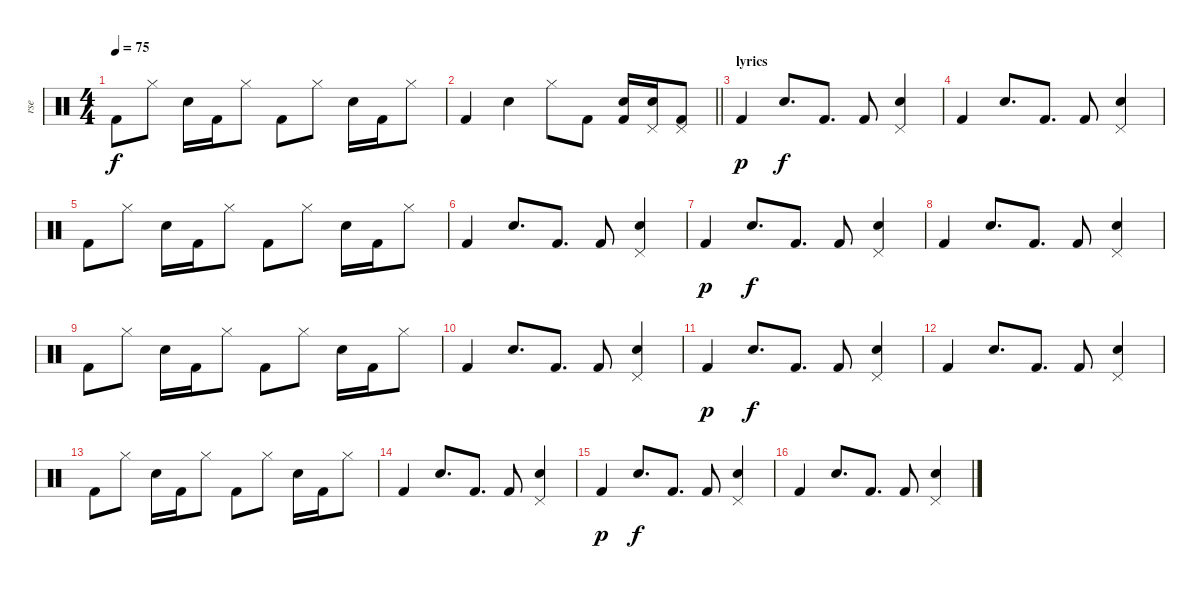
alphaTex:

\track ("rse" "rse") {instrument percussion}
\staff {score}
\articulation defaults
\ts (4 4)
\tempo 75
\clef neutral
\ks c "Kick (hit) 2".8{dy f} "Hi-Hat (closed)".8 "Electric Snare (hit)".16 "Kick (hit) 2".16 "Hi-Hat (closed)".8 "Kick (hit) 2".8 "Hi-Hat (closed)".8 "Electric Snare (hit)".16 "Kick (hit) 2".16 "Hi-Hat (closed)".8
|
\barLineRight lightlight "Kick (hit) 2".4 "Electric Snare (hit)".4 "Hi-Hat (closed)".8 "Kick (hit) 2".8
("Kick (hit) 2" "Electric Snare (hit)").16 ("Electric Snare (hit)" "Pedal Hi-Hat (hit)").16 ("Kick (hit) 2" "Pedal Hi-Hat (hit)").8 |
\section ("" "lyrics")
"Kick (hit) 2".4{dy p} "Electric Snare (hit)".8{d dy f} "Kick (hit) 2".8{d} "Kick (hit) 2".8 ("Electric Snare (hit)" "Pedal Hi-Hat (hit)").4 |
"Kick (hit) 2".4 "Electric Snare (hit)".8{d} "Kick (hit) 2".8{d} "Kick (hit) 2".8 ("Electric Snare (hit)" "Pedal Hi-Hat (hit)").4 |
"Kick (hit) 2".8 "Hi-Hat (closed)".8 "Electric Snare (hit)".16 "Kick (hit) 2".16 "Hi-Hat (closed)".8 "Kick (hit) 2".8 "Hi-Hat (closed)".8 "Electric Snare (hit)".16 "Kick (hit) 2".16 "Hi-Hat (closed)".8 |
"Kick (hit) 2".4 "Electric Snare (hit)".8{d} "Kick (hit) 2".8{d} "Kick (hit) 2".8 ("Electric Snare (hit)" "Pedal Hi-Hat (hit)").4 |
"Kick (hit) 2".4{dy p} "Electric Snare (hit)".8{d dy f} "Kick (hit) 2".8{d} "Kick (hit) 2".8 ("Electric Snare (hit)" "Pedal Hi-Hat (hit)").4 |
"Kick (hit) 2".4 "Electric Snare (hit)".8{d} "Kick (hit) 2".8{d} "Kick (hit) 2".8 ("Electric Snare (hit)" "Pedal Hi-Hat (hit)").4 |
"Kick (hit) 2".8 "Hi-Hat (closed)".8 "Electric Snare (hit)".16 "Kick (hit) 2".16 "Hi-Hat (closed)".8 "Kick (hit) 2".8 "Hi-Hat (closed)".8 "Electric Snare (hit)".16 "Kick (hit) 2".16 "Hi-Hat (closed)".8 |
"Kick (hit) 2".4 "Electric Snare (hit)".8{d} "Kick (hit) 2".8{d} "Kick (hit) 2".8 ("Electric Snare (hit)" "Pedal Hi-Hat (hit)").4 |
"Kick (hit) 2".4{dy p} "Electric Snare (hit)".8{d dy f} "Kick (hit) 2".8{d} "Kick (hit) 2".8 ("Electric Snare (hit)" "Pedal Hi-Hat (hit)").4 |
"Kick (hit) 2".4 "Electric Snare (hit)".8{d} "Kick (hit) 2".8{d} "Kick (hit) 2".8 ("Electric Snare (hit)" "Pedal Hi-Hat (hit)").4 |
"Kick (hit) 2".8 "Hi-Hat (closed)".8 "Electric Snare (hit)".16 "Kick (hit) 2".16 "Hi-Hat (closed)".8 "Kick (hit) 2".8 "Hi-Hat (closed)".8 "Electric Snare (hit)".16 "Kick (hit) 2".16 "Hi-Hat (closed)".8 |
"Kick (hit) 2".4 "Electric Snare (hit)".8{d} "Kick (hit) 2".8{d} "Kick (hit) 2".8 ("Electric Snare (hit)" "Pedal Hi-Hat (hit)").4 |
"Kick (hit) 2".4{dy p} "Electric Snare (hit)".8{d dy f} "Kick (hit) 2".8{d} "Kick (hit) 2".8 ("Electric Snare (hit)" "Pedal Hi-Hat (hit)").4 |
"Kick (hit) 2".4 "Electric Snare (hit)".8{d} "Kick (hit) 2".8{d} "Kick (hit) 2".8 ("Electric Snare (hit)" "Pedal Hi-Hat (hit)").4
